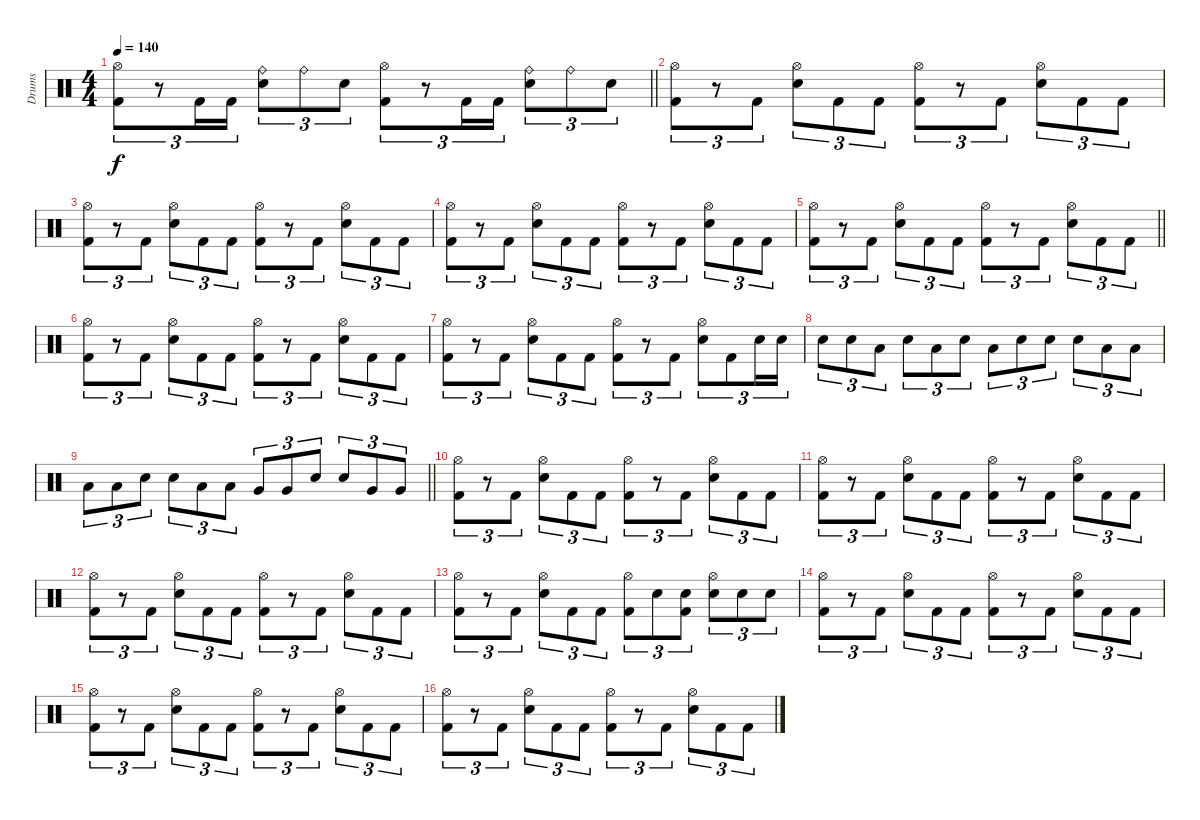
\track ("Drums" "Drums") {instrument percussion}
\staff {score}
\articulation defaults
\ts (4 4)
\tempo 140
\clef neutral
\barLineRight lightlight
\ks c
("Hi-Hat (open)" "Kick (hit) 2").8{tu (3 2) dy f} r.8{tu (3 2)} "Kick (hit) 2".16{tu (3 2)} "Kick (hit) 2".16{tu (3 2)} ("Ride (bell)" "Snare (hit) 2").8{tu (3 2)} "Ride (bell)".8{tu (3 2)} "Snare (hit) 2".8{tu (3 2)} ("Hi-Hat (open)" "Kick (hit) 2").8{tu (3 2)} r.8{tu (3 2)} "Kick (hit) 2".16{tu (3 2)} "Kick (hit) 2".16{tu (3 2)} ("Ride (bell)" "Snare (hit) 2").8{tu (3 2)} "Ride (bell)".8{tu (3 2)} "Snare (hit) 2".8{tu (3 2)} |
("Hi-Hat (open)" "Kick (hit) 2").8{tu (3 2)} r.8{tu (3 2)} "Kick (hit) 2".8{tu (3 2)} ("Hi-Hat (open)" "Snare (hit) 2").8{tu (3 2)} "Kick (hit) 2".8{tu (3 2)} "Kick (hit) 2".8{tu (3 2)} ("Hi-Hat (open)" "Kick (hit) 2").8{tu (3 2)} r.8{tu (3 2)} "Kick (hit) 2".8{tu (3 2)} ("Hi-Hat (open)" "Snare (hit) 2").8{tu (3 2)} "Kick (hit) 2".8{tu (3 2)} "Kick (hit) 2".8{tu (3 2)} |
("Hi-Hat (open)" "Kick (hit) 2").8{tu (3 2)} r.8{tu (3 2)} "Kick (hit) 2".8{tu (3 2)} ("Hi-Hat (open)" "Snare (hit) 2").8{tu (3 2)} "Kick (hit) 2".8{tu (3 2)} "Kick (hit) 2".8{tu (3 2)} ("Hi-Hat (open)" "Kick (hit) 2").8{tu (3 2)} r.8{tu (3 2)} "Kick (hit) 2".8{tu (3 2)} ("Hi-Hat (open)" "Snare (hit) 2").8{tu (3 2)} "Kick (hit) 2".8{tu (3 2)} "Kick (hit) 2".8{tu (3 2)} |
("Hi-Hat (open)" "Kick (hit) 2").8{tu (3 2)} r.8{tu (3 2)} "Kick (hit) 2".8{tu (3 2)} ("Hi-Hat (open)" "Snare (hit) 2").8{tu (3 2)} "Kick (hit) 2".8{tu (3 2)} "Kick (hit) 2".8{tu (3 2)} ("Hi-Hat (open)" "Kick (hit) 2").8{tu (3 2)} r.8{tu (3 2)} "Kick (hit) 2".8{tu (3 2)} ("Hi-Hat (open)" "Snare (hit) 2").8{tu (3 2)} "Kick (hit) 2".8{tu (3 2)} "Kick (hit) 2".8{tu (3 2)} |
\barLineRight lightlight
("Hi-Hat (open)" "Kick (hit) 2").8{tu (3 2)} r.8{tu (3 2)} "Kick (hit) 2".8{tu (3 2)} ("Hi-Hat (open)" "Snare (hit) 2").8{tu (3 2)} "Kick (hit) 2".8{tu (3 2)} "Kick (hit) 2".8{tu (3 2)} ("Hi-Hat (open)" "Kick (hit) 2").8{tu (3 2)} r.8{tu (3 2)} "Kick (hit) 2".8{tu (3 2)} ("Hi-Hat (open)" "Snare (hit) 2").8{tu (3 2)} "Kick (hit) 2".8{tu (3 2)} "Kick (hit) 2".8{tu (3 2)} |
("Hi-Hat (open)" "Kick (hit) 2").8{tu (3 2)} r.8{tu (3 2)} "Kick (hit) 2".8{tu (3 2)} ("Hi-Hat (open)" "Snare (hit) 2").8{tu (3 2)} "Kick (hit) 2".8{tu (3 2)} "Kick (hit) 2".8{tu (3 2)} ("Hi-Hat (open)" "Kick (hit) 2").8{tu (3 2)} r.8{tu (3 2)} "Kick (hit) 2".8{tu (3 2)} ("Hi-Hat (open)" "Snare (hit) 2").8{tu (3 2)} "Kick (hit) 2".8{tu (3 2)} "Kick (hit) 2".8{tu (3 2)} |
("Hi-Hat (open)" "Kick (hit) 2").8{tu (3 2)} r.8{tu (3 2)} "Kick (hit) 2".8{tu (3 2)} ("Hi-Hat (open)" "Snare (hit) 2").8{tu (3 2)} "Kick (hit) 2".8{tu (3 2)} "Kick (hit) 2".8{tu (3 2)} ("Hi-Hat (open)" "Kick (hit) 2").8{tu (3 2)} r.8{tu (3 2)} "Kick (hit) 2".8{tu (3 2)} ("Hi-Hat (open)" "Snare (hit) 2").8{tu (3 2)} "Kick (hit) 2".8{tu (3 2)} "Snare (hit) 2".16{tu (3 2)} "Snare (hit) 2".16{tu (3 2)} |
"Snare (hit) 2".8{tu (3 2)} "Snare (hit) 2".8{tu (3 2)} "Low Tom (hit)".8{tu (3 2)} "Snare (hit) 2".8{tu (3 2)} "Low Tom (hit)".8{tu (3 2)} "Snare (hit) 2".8{tu (3 2)} "Low Tom (hit)".8{tu (3 2)} "Snare (hit) 2".8{tu (3 2)} "Snare (hit) 2".8{tu (3 2)} "Snare (hit) 2".8{tu (3 2)} "Low Tom (hit)".8{tu (3 2)} "Low Tom (hit)".8{tu (3 2)} |
\barLineRight lightlight "Low Floor Tom (hit)".8{tu (3 2)} "Low Floor Tom (hit)".8{tu (3 2)} "Snare (hit) 2".8{tu (3 2)} "Snare (hit) 2".8{tu (3 2)} "Low Floor Tom (hit)".8{tu (3 2)} "Low Floor Tom (hit)".8{tu (3 2)} "Very Low Tom (hit)".8{tu (3 2)} "Very Low Tom (hit)".8{tu (3 2)} "Snare (hit) 2".8{tu (3 2)} "Snare (hit) 2".8{tu (3 2)} "Very Low Tom (hit)".8{tu (3 2)} "Very Low Tom (hit)".8{tu (3 2)}
|
("Hi-Hat (open)" "Kick (hit) 2").8{tu (3 2)} r.8{tu (3 2)} "Kick (hit) 2".8{tu (3 2)} ("Hi-Hat (open)" "Snare (hit) 2").8{tu (3 2)} "Kick (hit) 2".8{tu (3 2)} "Kick (hit) 2".8{tu (3 2)} ("Hi-Hat (open)" "Kick (hit) 2").8{tu (3 2)} r.8{tu (3 2)} "Kick (hit) 2".8{tu (3 2)} ("Hi-Hat (open)" "Snare (hit) 2").8{tu (3 2)} "Kick (hit) 2".8{tu (3 2)} "Kick (hit) 2".8{tu (3 2)} |
("Hi-Hat (open)" "Kick (hit) 2").8{tu (3 2)} r.8{tu (3 2)} "Kick (hit) 2".8{tu (3 2)} ("Hi-Hat (open)" "Snare (hit) 2").8{tu (3 2)} "Kick (hit) 2".8{tu (3 2)} "Kick (hit) 2".8{tu (3 2)} ("Hi-Hat (open)" "Kick (hit) 2").8{tu (3 2)} r.8{tu (3 2)} "Kick (hit) 2".8{tu (3 2)} ("Hi-Hat (open)" "Snare (hit) 2").8{tu (3 2)} "Kick (hit) 2".8{tu (3 2)} "Kick (hit) 2".8{tu (3 2)} |
("Hi-Hat (open)" "Kick (hit) 2").8{tu (3 2)} r.8{tu (3 2)} "Kick (hit) 2".8{tu (3 2)} ("Hi-Hat (open)" "Snare (hit) 2").8{tu (3 2)} "Kick (hit) 2".8{tu (3 2)} "Kick (hit) 2".8{tu (3 2)} ("Hi-Hat (open)" "Kick (hit) 2").8{tu (3 2)} r.8{tu (3 2)} "Kick (hit) 2".8{tu (3 2)} ("Hi-Hat (open)" "Snare (hit) 2").8{tu (3 2)} "Kick (hit) 2".8{tu (3 2)} "Kick (hit) 2".8{tu (3 2)} |
("Hi-Hat (open)" "Kick (hit) 2").8{tu (3 2)} r.8{tu (3 2)} "Kick (hit) 2".8{tu (3 2)} ("Hi-Hat (open)" "Snare (hit) 2").8{tu (3 2)} "Kick (hit) 2".8{tu (3 2)} "Kick (hit) 2".8{tu (3 2)} ("Hi-Hat (open)" "Kick (hit) 2").8{tu (3 2)} "Snare (hit) 2".8{tu (3 2)} ("Snare (hit) 2" "Kick (hit) 2").8{tu (3 2)} ("Hi-Hat (open)" "Snare (hit) 2").8{tu (3 2)} "Snare (hit) 2".8{tu (3 2)} "Snare (hit) 2".8{tu (3 2)} |
("Hi-Hat (open)" "Kick (hit) 2").8{tu (3 2)} r.8{tu (3 2)} "Kick (hit) 2".8{tu (3 2)} ("Hi-Hat (open)" "Snare (hit) 2").8{tu (3 2)} "Kick (hit) 2".8{tu (3 2)} "Kick (hit) 2".8{tu (3 2)} ("Hi-Hat (open)" "Kick (hit) 2").8{tu (3 2)} r.8{tu (3 2)} "Kick (hit) 2".8{tu (3 2)} ("Hi-Hat (open)" "Snare (hit) 2").8{tu (3 2)} "Kick (hit) 2".8{tu (3 2)} "Kick (hit) 2".8{tu (3 2)} |
("Hi-Hat (open)" "Kick (hit) 2").8{tu (3 2)} r.8{tu (3 2)} "Kick (hit) 2".8{tu (3 2)} ("Hi-Hat (open)" "Snare (hit) 2").8{tu (3 2)} "Kick (hit) 2".8{tu (3 2)} "Kick (hit) 2".8{tu (3 2)} ("Hi-Hat (open)" "Kick (hit) 2").8{tu (3 2)} r.8{tu (3 2)} "Kick (hit) 2".8{tu (3 2)} ("Hi-Hat (open)" "Snare (hit) 2").8{tu (3 2)} "Kick (hit) 2".8{tu (3 2)} "Kick (hit) 2".8{tu (3 2)} |
("Hi-Hat (open)" "Kick (hit) 2").8{tu (3 2)} r.8{tu (3 2)} "Kick (hit) 2".8{tu (3 2)} ("Hi-Hat (open)" "Snare (hit) 2").8{tu (3 2)} "Kick (hit) 2".8{tu (3 2)} "Kick (hit) 2".8{tu (3 2)} ("Hi-Hat (open)" "Kick (hit) 2").8{tu (3 2)} r.8{tu (3 2)} "Kick (hit) 2".8{tu (3 2)} ("Hi-Hat (open)" "Snare (hit) 2").8{tu (3 2)} "Kick (hit) 2".8{tu (3 2)} "Kick (hit) 2".8{tu (3 2)}
